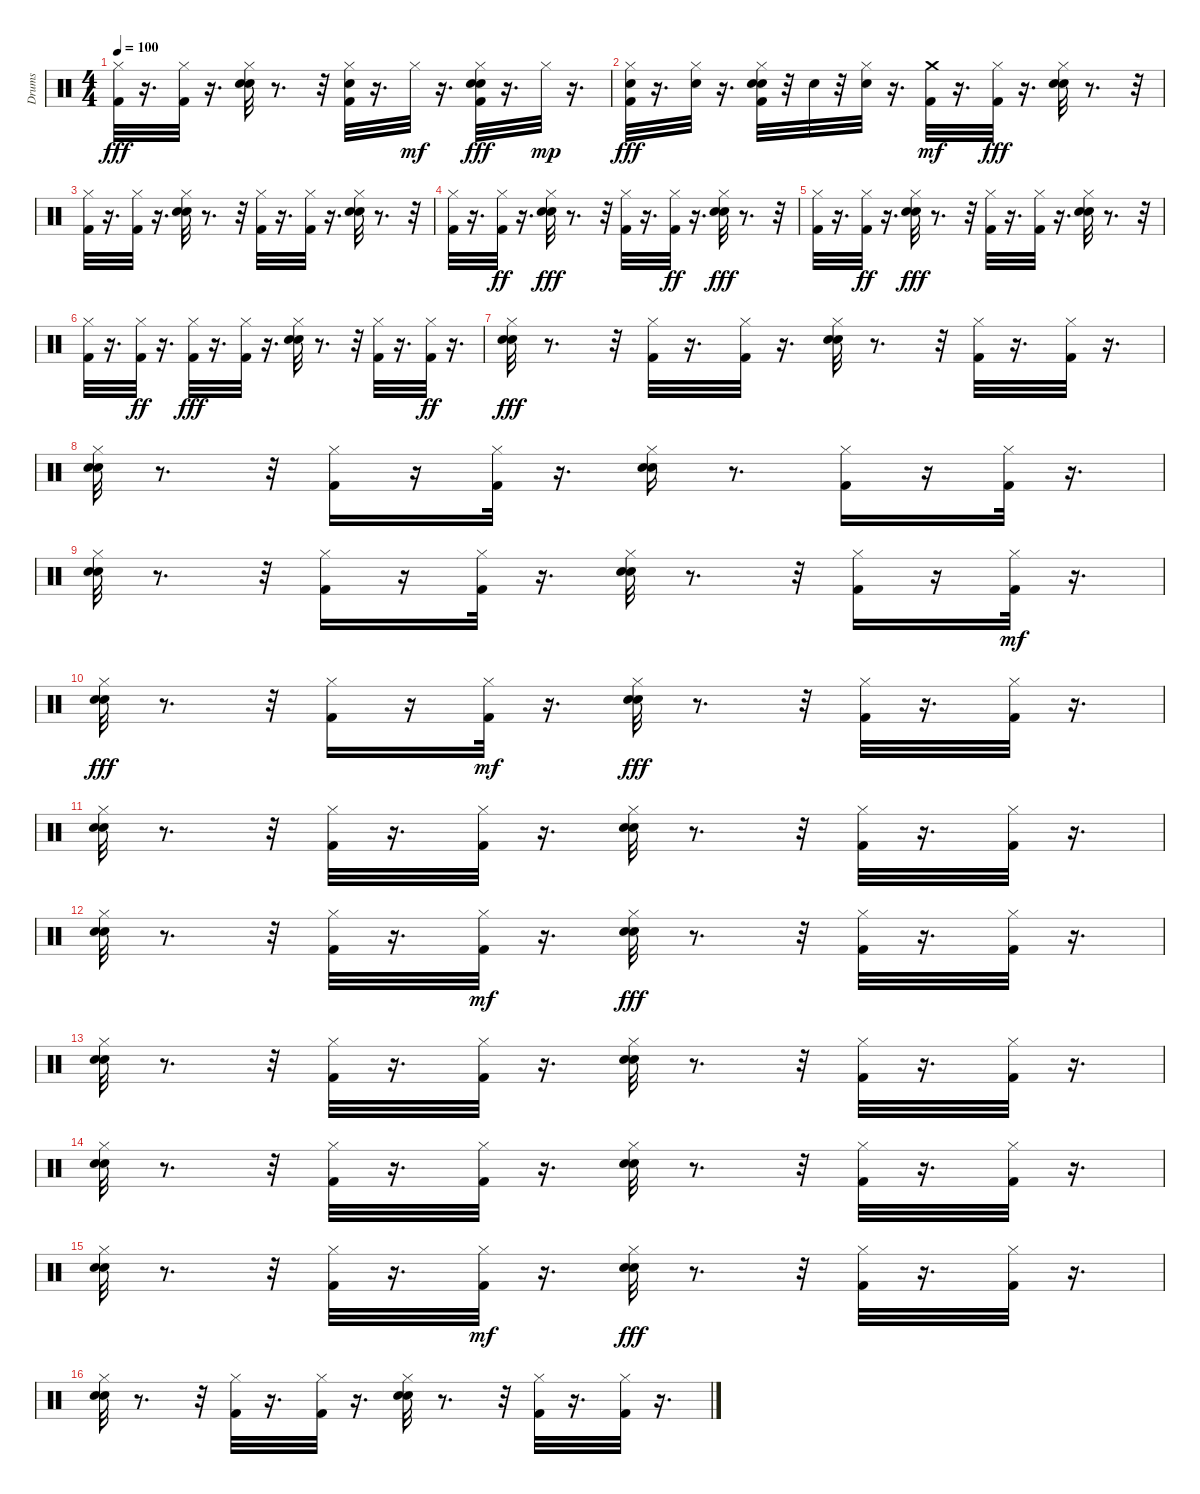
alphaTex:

\track ("Drums" "Drums") {instrument percussion}
\staff {score}
\articulation defaults
\ts (4 4)
\tempo 100
\clef neutral
\ks c
("Hi-Hat (closed)" "Kick (hit) 2").32{dy fff} r.16{d} ("Hi-Hat (closed)" "Kick (hit) 2").32 r.16{d} ("Snare (hit) 2" "Hand Clap (hit)" "Hi-Hat (closed)").32 r.8{d} r.32 ("Kick (hit) 2" "Snare (hit) 2" "Hi-Hat (closed)").32 r.16{d} "Hi-Hat (closed)".32{dy mf} r.16{d} ("Hi-Hat (closed)" "Hand Clap (hit)" "Snare (hit) 2" "Kick (hit) 2").32{dy fff} r.16{d} "Hi-Hat (closed)".32{dy mp} r.16{d} |
("Kick (hit) 2" "Hi-Hat (closed)" "Snare (hit) 2").32{dy fff} r.16{d} ("Hi-Hat (closed)" "Snare (hit) 2").32 r.16{d} ("Kick (hit) 2" "Hi-Hat (closed)" "Snare (hit) 2" "Hand Clap (hit)").32 r.32 "Snare (hit) 2".32 r.32 ("Snare (hit) 2" "Hi-Hat (closed)").32 r.16{d} ("Kick (hit) 2" "Crash medium (hit)").32{dy mf} r.16{d} ("Hi-Hat (closed)" "Kick (hit) 2").32{dy fff} r.16{d} ("Hi-Hat (closed)" "Snare (hit) 2" "Hand Clap (hit)").32 r.8{d} r.32 |
("Kick (hit) 2" "Hi-Hat (closed)").32 r.16{d} ("Hi-Hat (closed)" "Kick (hit) 2").32 r.16{d} ("Hand Clap (hit)" "Snare (hit) 2" "Hi-Hat (closed)").32 r.8{d} r.32 ("Kick (hit) 2" "Hi-Hat (closed)").32 r.16{d} ("Hi-Hat (closed)" "Kick (hit) 2").32 r.16{d} ("Hand Clap (hit)" "Snare (hit) 2" "Hi-Hat (closed)").32 r.8{d} r.32 |
("Hi-Hat (closed)" "Kick (hit) 2").32 r.16{d} ("Kick (hit) 2" "Hi-Hat (closed)").32{dy ff} r.16{d} ("Snare (hit) 2" "Hi-Hat (closed)" "Hand Clap (hit)").32{dy fff} r.8{d} r.32 ("Kick (hit) 2" "Hi-Hat (closed)").32 r.16{d} ("Kick (hit) 2" "Hi-Hat (closed)").32{dy ff} r.16{d} ("Hi-Hat (closed)" "Hand Clap (hit)" "Snare (hit) 2").32{dy fff} r.8{d} r.32 |
("Kick (hit) 2" "Hi-Hat (closed)").32 r.16{d} ("Kick (hit) 2" "Hi-Hat (closed)").32{dy ff} r.16{d} ("Hand Clap (hit)" "Snare (hit) 2" "Hi-Hat (closed)").32{dy fff} r.8{d} r.32 ("Kick (hit) 2" "Hi-Hat (closed)").32 r.16{d} ("Hi-Hat (closed)" "Kick (hit) 2").32 r.16{d} ("Hi-Hat (closed)" "Snare (hit) 2" "Hand Clap (hit)").32 r.8{d} r.32 |
("Kick (hit) 2" "Hi-Hat (closed)").32 r.16{d} ("Hi-Hat (closed)" "Kick (hit) 2").32{dy ff} r.16{d} ("Kick (hit) 2" "Hi-Hat (closed)").32{dy fff} r.16{d} ("Hi-Hat (closed)" "Kick (hit) 2").32 r.16{d} ("Hand Clap (hit)" "Snare (hit) 2" "Hi-Hat (closed)").32 r.8{d} r.32 ("Kick (hit) 2" "Hi-Hat (closed)").32 r.16{d} ("Kick (hit) 2" "Hi-Hat (closed)").32{dy ff} r.16{d} |
("Snare (hit) 2" "Hi-Hat (closed)" "Hand Clap (hit)").32{dy fff} r.8{d} r.32 ("Hi-Hat (closed)" "Kick (hit) 2").32 r.16{d} ("Hi-Hat (closed)" "Kick (hit) 2").32 r.16{d} ("Hand Clap (hit)" "Hi-Hat (closed)" "Snare (hit) 2").32 r.8{d} r.32 ("Hi-Hat (closed)" "Kick (hit) 2").32 r.16{d} ("Kick (hit) 2" "Hi-Hat (closed)").32 r.16{d} |
("Snare (hit) 2" "Hand Clap (hit)" "Hi-Hat (closed)").32 r.8{d} r.32 ("Hi-Hat (closed)" "Kick (hit) 2").16 r.16 ("Hi-Hat (closed)" "Kick (hit) 2").32 r.16{d} ("Hi-Hat (closed)" "Hand Clap (hit)" "Snare (hit) 2").16 r.8{d} ("Hi-Hat (closed)" "Kick (hit) 2").16 r.16 ("Hi-Hat (closed)" "Kick (hit) 2").32 r.16{d} |
("Hand Clap (hit)" "Hi-Hat (closed)" "Snare (hit) 2").32 r.8{d} r.32 ("Kick (hit) 2" "Hi-Hat (closed)").16 r.16 ("Hi-Hat (closed)" "Kick (hit) 2").32 r.16{d} ("Hi-Hat (closed)" "Snare (hit) 2" "Hand Clap (hit)").32 r.8{d} r.32 ("Hi-Hat (closed)" "Kick (hit) 2").16 r.16 ("Kick (hit) 2" "Hi-Hat (closed)").32{dy mf} r.16{d} |
("Hand Clap (hit)" "Hi-Hat (closed)" "Snare (hit) 2").32{dy fff} r.8{d} r.32 ("Kick (hit) 2" "Hi-Hat (closed)").16 r.16 ("Kick (hit) 2" "Hi-Hat (closed)").32{dy mf} r.16{d} ("Snare (hit) 2" "Hand Clap (hit)" "Hi-Hat (closed)").32{dy fff} r.8{d} r.32 ("Hi-Hat (closed)" "Kick (hit) 2").32 r.16{d} ("Hi-Hat (closed)" "Kick (hit) 2").32 r.16{d} |
("Snare (hit) 2" "Hi-Hat (closed)" "Hand Clap (hit)").32 r.8{d} r.32 ("Kick (hit) 2" "Hi-Hat (closed)").32 r.16{d} ("Hi-Hat (closed)" "Kick (hit) 2").32 r.16{d} ("Snare (hit) 2" "Hand Clap (hit)" "Hi-Hat (closed)").32 r.8{d} r.32 ("Hi-Hat (closed)" "Kick (hit) 2").32 r.16{d} ("Hi-Hat (closed)" "Kick (hit) 2").32 r.16{d} |
("Hand Clap (hit)" "Snare (hit) 2" "Hi-Hat (closed)").32 r.8{d} r.32 ("Kick (hit) 2" "Hi-Hat (closed)").32 r.16{d} ("Kick (hit) 2" "Hi-Hat (closed)").32{dy mf} r.16{d} ("Snare (hit) 2" "Hi-Hat (closed)" "Hand Clap (hit)").32{dy fff} r.8{d} r.32 ("Kick (hit) 2" "Hi-Hat (closed)").32 r.16{d} ("Hi-Hat (closed)" "Kick (hit) 2").32 r.16{d} |
("Snare (hit) 2" "Hi-Hat (closed)" "Hand Clap (hit)").32 r.8{d} r.32 ("Kick (hit) 2" "Hi-Hat (closed)").32 r.16{d} ("Kick (hit) 2" "Hi-Hat (closed)").32 r.16{d} ("Hi-Hat (closed)" "Snare (hit) 2" "Hand Clap (hit)").32 r.8{d} r.32 ("Hi-Hat (closed)" "Kick (hit) 2").32 r.16{d} ("Hi-Hat (closed)" "Kick (hit) 2").32 r.16{d} |
("Hi-Hat (closed)" "Hand Clap (hit)" "Snare (hit) 2").32 r.8{d} r.32 ("Hi-Hat (closed)" "Kick (hit) 2").32 r.16{d} ("Kick (hit) 2" "Hi-Hat (closed)").32 r.16{d} ("Hi-Hat (closed)" "Snare (hit) 2" "Hand Clap (hit)").32 r.8{d} r.32 ("Kick (hit) 2" "Hi-Hat (closed)").32 r.16{d} ("Hi-Hat (closed)" "Kick (hit) 2").32 r.16{d} |
("Snare (hit) 2" "Hand Clap (hit)" "Hi-Hat (closed)").32 r.8{d} r.32 ("Kick (hit) 2" "Hi-Hat (closed)").32 r.16{d} ("Kick (hit) 2" "Hi-Hat (closed)").32{dy mf} r.16{d} ("Snare (hit) 2" "Hand Clap (hit)" "Hi-Hat (closed)").32{dy fff} r.8{d} r.32 ("Hi-Hat (closed)" "Kick (hit) 2").32 r.16{d} ("Kick (hit) 2" "Hi-Hat (closed)").32 r.16{d} |
("Hi-Hat (closed)" "Snare (hit) 2" "Hand Clap (hit)").32 r.8{d} r.32 ("Kick (hit) 2" "Hi-Hat (closed)").32 r.16{d} ("Hi-Hat (closed)" "Kick (hit) 2").32 r.16{d} ("Hand Clap (hit)" "Hi-Hat (closed)" "Snare (hit) 2").32 r.8{d} r.32 ("Kick (hit) 2" "Hi-Hat (closed)").32 r.16{d} ("Hi-Hat (closed)" "Kick (hit) 2").32 r.16{d}
